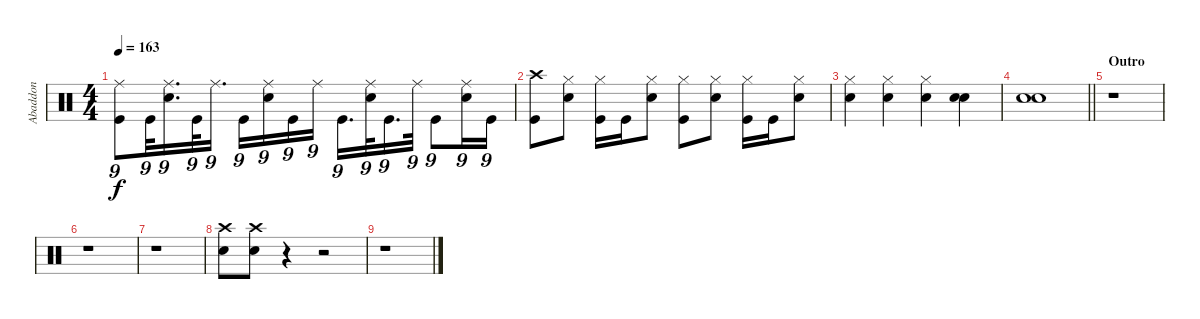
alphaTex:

\track ("Abaddon" "Abaddon") {instrument percussion}
\staff {score}
\articulation defaults
\ts (4 4)
\tempo 163
\clef neutral
\ks c
("Ride (middle)" "Kick (hit)").8{tu (9 8) dy f} "Kick (hit)".32{tu (9 8)} ("Ride (middle)" "Snare (hit) 2").16{d tu (9 8)} "Kick (hit)".32{tu (9 8)} "Ride (middle)".16{d tu (9 8)} "Kick (hit)".16{tu (9 8)} ("Ride (middle)" "Snare (hit) 2").16{tu (9 8)} "Kick (hit)".16{tu (9 8)} "Ride (middle)".16{tu (9 8)} "Kick (hit)".16{d tu (9 8)} ("Ride (middle)" "Snare (hit) 2").32{tu (9 8)} "Kick (hit)".16{d tu (9 8)} "Ride (middle)".32{tu (9 8)} "Kick (hit)".8{tu (9 8)} ("Ride (middle)" "Snare (hit) 2").16{tu (9 8)} "Kick (hit)".16{tu (9 8)} |
("Crash high (hit)" "Kick (hit)").8 ("Hi-Hat (closed)" "Snare (hit) 2").8 ("Hi-Hat (closed)" "Kick (hit)").16 "Kick (hit)".16 ("Hi-Hat (closed)" "Snare (hit) 2").8 ("Hi-Hat (closed)" "Kick (hit)").8 ("Hi-Hat (closed)" "Snare (hit) 2").8 ("Hi-Hat (closed)" "Kick (hit)").16 "Kick (hit)".16 ("Hi-Hat (closed)" "Snare (hit) 2").8 |
("Hi-Hat (closed)" "Snare (hit) 2").4 ("Hi-Hat (closed)" "Snare (hit) 2").4 ("Hi-Hat (closed)" "Snare (hit) 2").4 ("Snare (hit) 2" "Snare (hit) 2").4 |
\barLineRight lightlight
("Snare (hit)" "Snare (hit) 2").1 |
\section ("" "Outro")
r.1 |
r.1 |
r.1 |
("Crash high (hit)" "Snare (hit) 2").8 ("Crash high (hit)" "Snare (hit) 2").8 r.4 r.2 |
r.1
